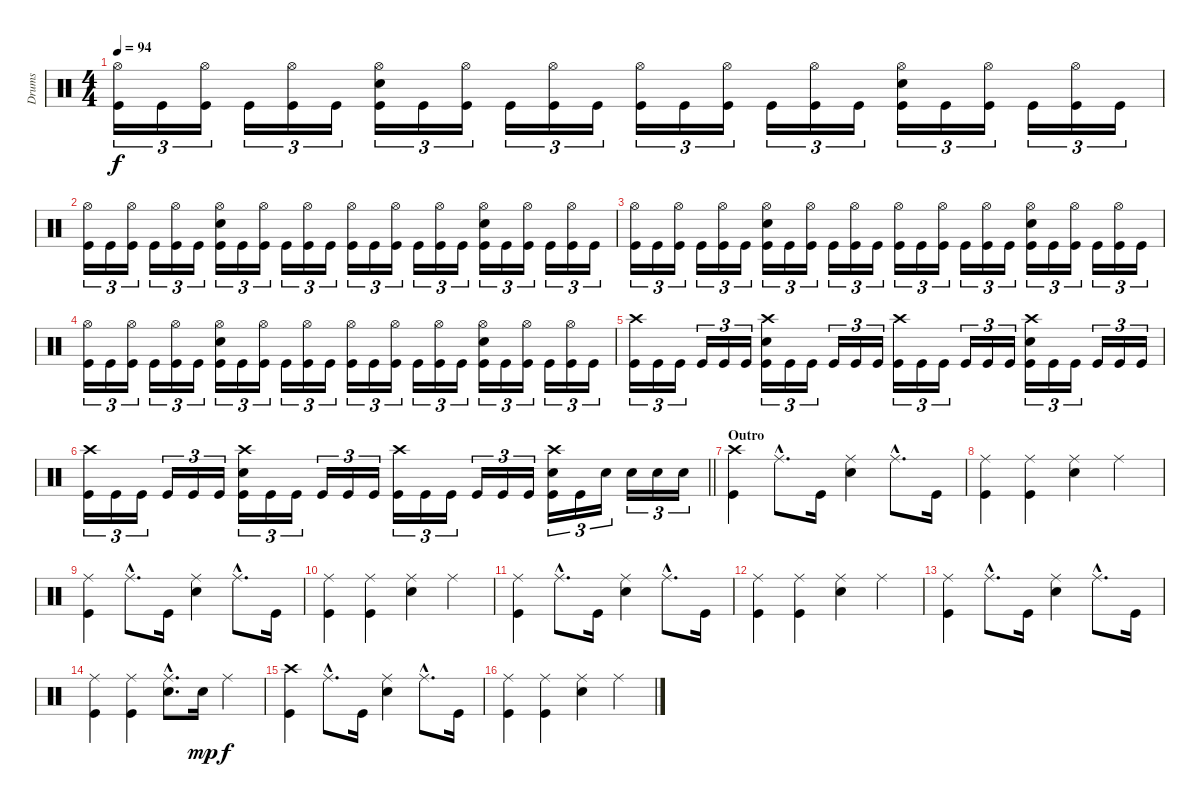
\track ("Drums" "Drums") {instrument percussion}
\staff {score}
\articulation defaults
\ts (4 4)
\tempo 94
\clef neutral
\ks c
("Hi-Hat (open)" "Kick (hit)").16{tu (3 2) dy f} "Kick (hit)".16{tu (3 2)} ("Hi-Hat (open)" "Kick (hit)").16{tu (3 2)} "Kick (hit)".16{tu (3 2)} ("Hi-Hat (open)" "Kick (hit)").16{tu (3 2)} "Kick (hit)".16{tu (3 2)} ("Hi-Hat (open)" "Snare (hit) 2" "Kick (hit)").16{tu (3 2)} "Kick (hit)".16{tu (3 2)} ("Hi-Hat (open)" "Kick (hit)").16{tu (3 2)} "Kick (hit)".16{tu (3 2)} ("Hi-Hat (open)" "Kick (hit)").16{tu (3 2)} "Kick (hit)".16{tu (3 2)} ("Hi-Hat (open)" "Kick (hit)").16{tu (3 2)} "Kick (hit)".16{tu (3 2)} ("Hi-Hat (open)" "Kick (hit)").16{tu (3 2)} "Kick (hit)".16{tu (3 2)} ("Hi-Hat (open)" "Kick (hit)").16{tu (3 2)} "Kick (hit)".16{tu (3 2)} ("Hi-Hat (open)" "Snare (hit) 2" "Kick (hit)").16{tu (3 2)} "Kick (hit)".16{tu (3 2)} ("Hi-Hat (open)" "Kick (hit)").16{tu (3 2)} "Kick (hit)".16{tu (3 2)} ("Hi-Hat (open)" "Kick (hit)").16{tu (3 2)} "Kick (hit)".16{tu (3 2)} |
("Hi-Hat (open)" "Kick (hit)").16{tu (3 2)} "Kick (hit)".16{tu (3 2)} ("Hi-Hat (open)" "Kick (hit)").16{tu (3 2)} "Kick (hit)".16{tu (3 2)} ("Hi-Hat (open)" "Kick (hit)").16{tu (3 2)} "Kick (hit)".16{tu (3 2)} ("Hi-Hat (open)" "Snare (hit) 2" "Kick (hit)").16{tu (3 2)} "Kick (hit)".16{tu (3 2)} ("Hi-Hat (open)" "Kick (hit)").16{tu (3 2)} "Kick (hit)".16{tu (3 2)} ("Hi-Hat (open)" "Kick (hit)").16{tu (3 2)} "Kick (hit)".16{tu (3 2)} ("Hi-Hat (open)" "Kick (hit)").16{tu (3 2)} "Kick (hit)".16{tu (3 2)} ("Hi-Hat (open)" "Kick (hit)").16{tu (3 2)} "Kick (hit)".16{tu (3 2)} ("Hi-Hat (open)" "Kick (hit)").16{tu (3 2)} "Kick (hit)".16{tu (3 2)} ("Hi-Hat (open)" "Snare (hit) 2" "Kick (hit)").16{tu (3 2)} "Kick (hit)".16{tu (3 2)} ("Hi-Hat (open)" "Kick (hit)").16{tu (3 2)} "Kick (hit)".16{tu (3 2)} ("Hi-Hat (open)" "Kick (hit)").16{tu (3 2)} "Kick (hit)".16{tu (3 2)} |
("Hi-Hat (open)" "Kick (hit)").16{tu (3 2)} "Kick (hit)".16{tu (3 2)} ("Hi-Hat (open)" "Kick (hit)").16{tu (3 2)} "Kick (hit)".16{tu (3 2)} ("Hi-Hat (open)" "Kick (hit)").16{tu (3 2)} "Kick (hit)".16{tu (3 2)} ("Hi-Hat (open)" "Snare (hit) 2" "Kick (hit)").16{tu (3 2)} "Kick (hit)".16{tu (3 2)} ("Hi-Hat (open)" "Kick (hit)").16{tu (3 2)} "Kick (hit)".16{tu (3 2)} ("Hi-Hat (open)" "Kick (hit)").16{tu (3 2)} "Kick (hit)".16{tu (3 2)} ("Hi-Hat (open)" "Kick (hit)").16{tu (3 2)} "Kick (hit)".16{tu (3 2)} ("Hi-Hat (open)" "Kick (hit)").16{tu (3 2)} "Kick (hit)".16{tu (3 2)} ("Hi-Hat (open)" "Kick (hit)").16{tu (3 2)} "Kick (hit)".16{tu (3 2)} ("Hi-Hat (open)" "Snare (hit) 2" "Kick (hit)").16{tu (3 2)} "Kick (hit)".16{tu (3 2)} ("Hi-Hat (open)" "Kick (hit)").16{tu (3 2)} "Kick (hit)".16{tu (3 2)} ("Hi-Hat (open)" "Kick (hit)").16{tu (3 2)} "Kick (hit)".16{tu (3 2)} |
("Hi-Hat (open)" "Kick (hit)").16{tu (3 2)} "Kick (hit)".16{tu (3 2)} ("Hi-Hat (open)" "Kick (hit)").16{tu (3 2)} "Kick (hit)".16{tu (3 2)} ("Hi-Hat (open)" "Kick (hit)").16{tu (3 2)} "Kick (hit)".16{tu (3 2)} ("Hi-Hat (open)" "Snare (hit) 2" "Kick (hit)").16{tu (3 2)} "Kick (hit)".16{tu (3 2)} ("Hi-Hat (open)" "Kick (hit)").16{tu (3 2)} "Kick (hit)".16{tu (3 2)} ("Hi-Hat (open)" "Kick (hit)").16{tu (3 2)} "Kick (hit)".16{tu (3 2)} ("Hi-Hat (open)" "Kick (hit)").16{tu (3 2)} "Kick (hit)".16{tu (3 2)} ("Hi-Hat (open)" "Kick (hit)").16{tu (3 2)} "Kick (hit)".16{tu (3 2)} ("Hi-Hat (open)" "Kick (hit)").16{tu (3 2)} "Kick (hit)".16{tu (3 2)} ("Hi-Hat (open)" "Snare (hit) 2" "Kick (hit)").16{tu (3 2)} "Kick (hit)".16{tu (3 2)} ("Hi-Hat (open)" "Kick (hit)").16{tu (3 2)} "Kick (hit)".16{tu (3 2)} ("Hi-Hat (open)" "Kick (hit)").16{tu (3 2)} "Kick (hit)".16{tu (3 2)} |
("Crash high (hit)" "Kick (hit)").16{tu (3 2)} "Kick (hit)".16{tu (3 2)} "Kick (hit)".16{tu (3 2)} "Kick (hit)".16{tu (3 2)} "Kick (hit)".16{tu (3 2)} "Kick (hit)".16{tu (3 2)} ("Crash high (hit)" "Snare (hit) 2" "Kick (hit)").16{tu (3 2)} "Kick (hit)".16{tu (3 2)} "Kick (hit)".16{tu (3 2)} "Kick (hit)".16{tu (3 2)} "Kick (hit)".16{tu (3 2)} "Kick (hit)".16{tu (3 2)} ("Crash high (hit)" "Kick (hit)").16{tu (3 2)} "Kick (hit)".16{tu (3 2)} "Kick (hit)".16{tu (3 2)} "Kick (hit)".16{tu (3 2)} "Kick (hit)".16{tu (3 2)} "Kick (hit)".16{tu (3 2)} ("Crash high (hit)" "Snare (hit) 2" "Kick (hit)").16{tu (3 2)} "Kick (hit)".16{tu (3 2)} "Kick (hit)".16{tu (3 2)} "Kick (hit)".16{tu (3 2)} "Kick (hit)".16{tu (3 2)} "Kick (hit)".16{tu (3 2)} |
\barLineRight lightlight
("Crash high (hit)" "Kick (hit)").16{tu (3 2)} "Kick (hit)".16{tu (3 2)} "Kick (hit)".16{tu (3 2)} "Kick (hit)".16{tu (3 2)} "Kick (hit)".16{tu (3 2)} "Kick (hit)".16{tu (3 2)} ("Crash high (hit)" "Snare (hit) 2" "Kick (hit)").16{tu (3 2)} "Kick (hit)".16{tu (3 2)} "Kick (hit)".16{tu (3 2)} "Kick (hit)".16{tu (3 2)} "Kick (hit)".16{tu (3 2)} "Kick (hit)".16{tu (3 2)} ("Crash high (hit)" "Kick (hit)").16{tu (3 2)} "Kick (hit)".16{tu (3 2)} "Kick (hit)".16{tu (3 2)} "Kick (hit)".16{tu (3 2)} "Kick (hit)".16{tu (3 2)} "Kick (hit)".16{tu (3 2)} ("Crash high (hit)" "Snare (hit) 2" "Kick (hit)").16{tu (3 2)} "Kick (hit)".16{tu (3 2)} "Snare (hit) 2".16{tu (3 2)} "Snare (hit) 2".16{tu (3 2)} "Snare (hit) 2".16{tu (3 2)} "Snare (hit) 2".16{tu (3 2)} |
\section ("" "Outro")
("Crash high (hit)" "Kick (hit)").4 "Ride (middle)"{hac}.8{d} "Kick (hit)".16 ("Ride (middle)" "Snare (hit) 2").4 "Ride (middle)"{hac}.8{d} "Kick (hit)".16 |
("Ride (middle)" "Kick (hit)").4 ("Ride (middle)" "Kick (hit)").4 ("Ride (middle)" "Snare (hit) 2").4 "Ride (middle)".4 |
("Ride (middle)" "Kick (hit)").4 "Ride (middle)"{hac}.8{d} "Kick (hit)".16 ("Ride (middle)" "Snare (hit) 2").4 "Ride (middle)"{hac}.8{d} "Kick (hit)".16 |
("Ride (middle)" "Kick (hit)").4 ("Ride (middle)" "Kick (hit)").4 ("Ride (middle)" "Snare (hit) 2").4 "Ride (middle)".4 |
("Ride (middle)" "Kick (hit)").4 "Ride (middle)"{hac}.8{d} "Kick (hit)".16 ("Ride (middle)" "Snare (hit) 2").4 "Ride (middle)"{hac}.8{d} "Kick (hit)".16 |
("Ride (middle)" "Kick (hit)").4 ("Ride (middle)" "Kick (hit)").4 ("Ride (middle)" "Snare (hit) 2").4 "Ride (middle)".4 |
("Ride (middle)" "Kick (hit)").4 "Ride (middle)"{hac}.8{d} "Kick (hit)".16 ("Ride (middle)" "Snare (hit) 2").4 "Ride (middle)"{hac}.8{d} "Kick (hit)".16 |
("Ride (middle)" "Kick (hit)").4 ("Ride (middle)" "Kick (hit)").4 ("Ride (middle)"{hac} "Snare (hit) 2"{hac}).8{d} "Snare (hit) 2".16{dy mp} "Ride (middle)".4{dy f} |
("Crash high (hit)" "Kick (hit)").4 "Ride (middle)"{hac}.8{d} "Kick (hit)".16 ("Ride (middle)" "Snare (hit) 2").4 "Ride (middle)"{hac}.8{d} "Kick (hit)".16 |
("Ride (middle)" "Kick (hit)").4 ("Ride (middle)" "Kick (hit)").4 ("Ride (middle)" "Snare (hit) 2").4 "Ride (middle)".4
